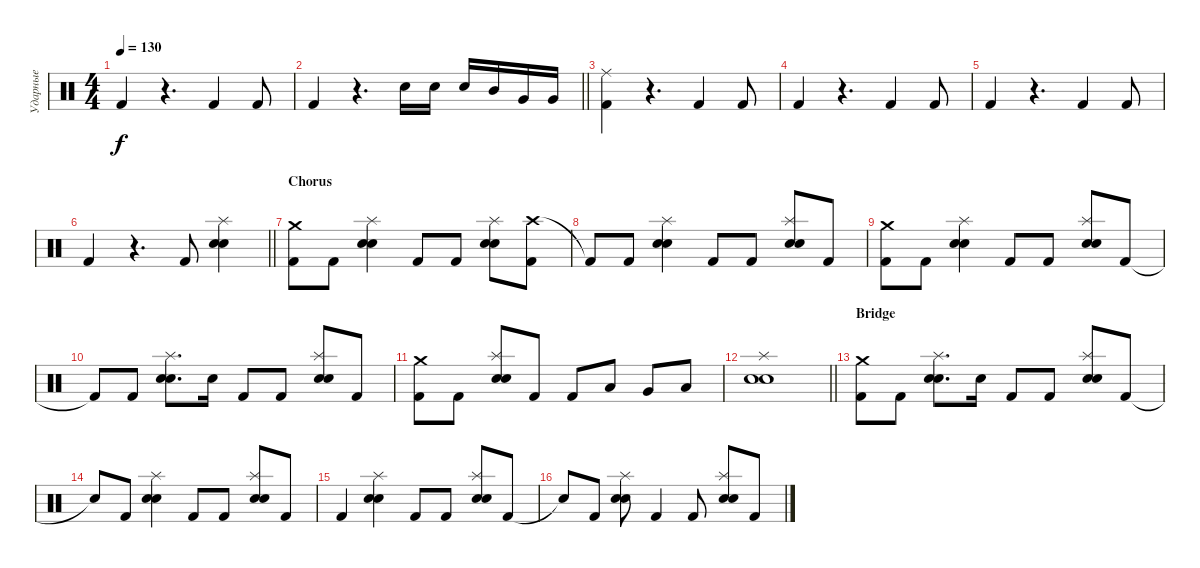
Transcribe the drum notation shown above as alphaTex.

\track ("Ударные" "Ударные") {instrument percussion}
\staff {score}
\articulation defaults
\ts (4 4)
\tempo 130
\clef neutral
\ks c "Kick (hit) 2".4{dy f}
r.4{d} "Kick (hit) 2".4 "Kick (hit) 2".8 |
\barLineRight lightlight "Kick (hit) 2".4
r.4{d} "Electric Snare (hit)".16 "Electric Snare (hit)".16 "Electric Snare (hit)".16 "Mid Tom (hit)".16 "Very Low Tom (hit)".16 "Very Low Tom (hit)".16 |
("Ride (middle)" "Kick (hit) 2").4 r.4{d} "Kick (hit) 2".4 "Kick (hit) 2".8 |
"Kick (hit) 2".4 r.4{d} "Kick (hit) 2".4 "Kick (hit) 2".8 |
"Kick (hit) 2".4 r.4{d} "Kick (hit) 2".4 "Kick (hit) 2".8 |
\barLineRight lightlight "Kick (hit) 2".4
r.4{d} "Kick (hit) 2".8 ("Splash (hit)" "Electric Snare (hit)" "Snare (hit) 2").4 |
\section ("" "Chorus")
("Crash medium (hit)" "Kick (hit) 2").8 "Kick (hit) 2".8 ("Splash (hit)" "Electric Snare (hit)" "Snare (hit) 2").4 "Kick (hit) 2".8 "Kick (hit) 2".8 ("Splash (hit)" "Electric Snare (hit)" "Snare (hit) 2").8 ("Crash high (hit)" "Kick (hit) 2").8 |
"Kick (hit) 2"{t}.8 "Kick (hit) 2".8 ("Splash (hit)" "Electric Snare (hit)" "Snare (hit) 2").4 "Kick (hit) 2".8 "Kick (hit) 2".8 ("Splash (hit)" "Electric Snare (hit)" "Snare (hit) 2").8 "Kick (hit) 2".8 |
("Crash medium (hit)" "Kick (hit) 2").8 "Kick (hit) 2".8 ("Splash (hit)" "Electric Snare (hit)" "Snare (hit) 2").4 "Kick (hit) 2".8 "Kick (hit) 2".8 ("Splash (hit)" "Electric Snare (hit)" "Snare (hit) 2").8 "Kick (hit) 2".8 |
"Kick (hit) 2"{t}.8 "Kick (hit) 2".8 ("Splash (hit)" "Electric Snare (hit)" "Snare (hit) 2").8{d} "Electric Snare (hit)".16 "Kick (hit) 2".8 "Kick (hit) 2".8 ("Splash (hit)" "Electric Snare (hit)" "Snare (hit) 2").8 "Kick (hit) 2".8 |
("Crash medium (hit)" "Kick (hit) 2").8 "Kick (hit) 2".8 ("Splash (hit)" "Electric Snare (hit)" "Snare (hit) 2").8 "Kick (hit) 2".8 "Kick (hit) 2".8 "Low Tom (hit)".8 "Very Low Tom (hit)".8 "Low Floor Tom (hit)".8 |
\barLineRight lightlight
("Splash (hit)" "Electric Snare (hit)" "Snare (hit) 2").1 |
\section ("" "Bridge")
("Crash medium (hit)" "Kick (hit) 2").8 "Kick (hit) 2".8 ("Splash (hit)" "Electric Snare (hit)" "Snare (hit) 2").8{d} "Electric Snare (hit)".16 "Kick (hit) 2".8 "Kick (hit) 2".8 ("Splash (hit)" "Electric Snare (hit)" "Snare (hit) 2").8 "Kick (hit) 2".8 |
"Snare (hit)"{t}.8 "Kick (hit) 2".8 ("Splash (hit)" "Electric Snare (hit)" "Snare (hit) 2").4 "Kick (hit) 2".8 "Kick (hit) 2".8 ("Splash (hit)" "Electric Snare (hit)" "Snare (hit) 2").8 "Kick (hit) 2".8 |
"Kick (hit) 2".4 ("Splash (hit)" "Electric Snare (hit)" "Snare (hit) 2").4 "Kick (hit) 2".8 "Kick (hit) 2".8 ("Splash (hit)" "Electric Snare (hit)" "Snare (hit) 2").8 "Kick (hit) 2".8 |
"Snare (hit)"{t}.8 "Kick (hit) 2".8 ("Splash (hit)" "Electric Snare (hit)" "Snare (hit) 2").8 "Kick (hit) 2".4 "Kick (hit) 2".8 ("Splash (hit)" "Electric Snare (hit)" "Snare (hit) 2").8 "Kick (hit) 2".8
